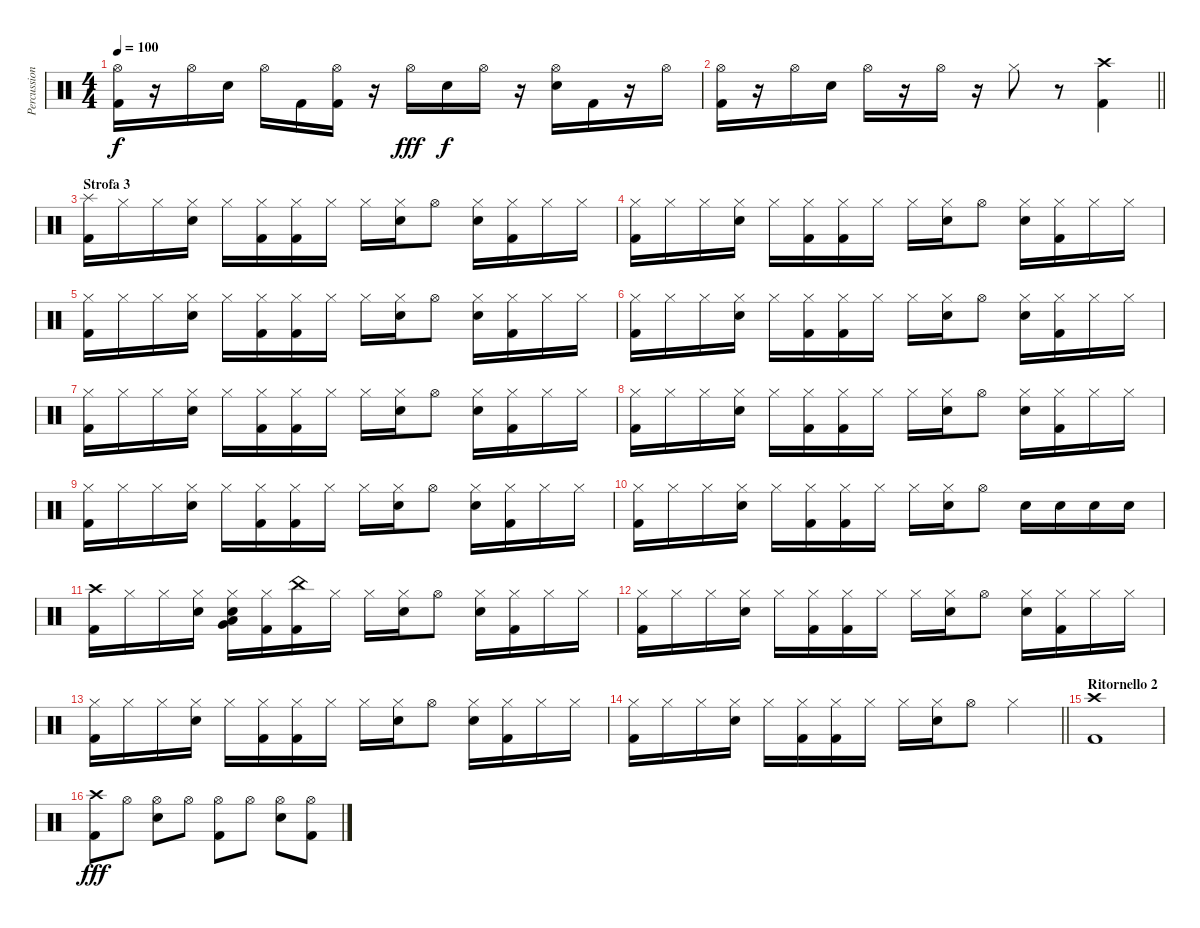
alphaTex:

\track ("Percussioni" "Percussion") {instrument percussion}
\staff {score}
\articulation defaults
\ts (4 4)
\tempo 100
\clef neutral
\ks c
("Hi-Hat (open)" "Kick (hit) 2").16{dy f} r.16 "Hi-Hat (open)".16 "Snare (hit) 2".16 "Hi-Hat (open)".16 "Kick (hit) 2".16 ("Hi-Hat (open)" "Kick (hit) 2").16 r.16 "Hi-Hat (open)".16{dy fff} "Snare (hit) 2".16{dy f} "Hi-Hat (open)".16 r.16 ("Hi-Hat (open)" "Snare (hit) 2").16 "Kick (hit) 2".16 r.16 "Hi-Hat (open)".16 |
\barLineRight lightlight
("Hi-Hat (open)" "Kick (hit) 2").16 r.16 "Hi-Hat (open)".16 "Snare (hit) 2".16 "Hi-Hat (open)".16 r.16 "Hi-Hat (open)".16 r.16 "Hi-Hat (closed)".8 r.8 ("Crash high (hit)" "Kick (hit) 2").4 |
\section ("" "Strofa 3")
("Splash (hit)" "Kick (hit) 2").16 "Hi-Hat (closed)".16 "Hi-Hat (closed)".16 ("Hi-Hat (closed)" "Snare (hit) 2").16 "Hi-Hat (closed)".16 ("Hi-Hat (closed)" "Kick (hit) 2").16 ("Hi-Hat (closed)" "Kick (hit) 2").16 "Hi-Hat (closed)".16 "Hi-Hat (closed)".16 ("Hi-Hat (closed)" "Snare (hit) 2").16 "Hi-Hat (open)".8 ("Hi-Hat (closed)" "Snare (hit) 2").16 ("Hi-Hat (closed)" "Kick (hit) 2").16 "Hi-Hat (closed)".16 "Hi-Hat (closed)".16 |
("Hi-Hat (closed)" "Kick (hit) 2").16 "Hi-Hat (closed)".16 "Hi-Hat (closed)".16 ("Hi-Hat (closed)" "Snare (hit) 2").16 "Hi-Hat (closed)".16 ("Hi-Hat (closed)" "Kick (hit) 2").16 ("Hi-Hat (closed)" "Kick (hit) 2").16 "Hi-Hat (closed)".16 "Hi-Hat (closed)".16 ("Hi-Hat (closed)" "Snare (hit) 2").16 "Hi-Hat (open)".8 ("Hi-Hat (closed)" "Snare (hit) 2").16 ("Hi-Hat (closed)" "Kick (hit) 2").16 "Hi-Hat (closed)".16 "Hi-Hat (closed)".16 |
("Hi-Hat (closed)" "Kick (hit) 2").16 "Hi-Hat (closed)".16 "Hi-Hat (closed)".16 ("Hi-Hat (closed)" "Snare (hit) 2").16 "Hi-Hat (closed)".16 ("Hi-Hat (closed)" "Kick (hit) 2").16 ("Hi-Hat (closed)" "Kick (hit) 2").16 "Hi-Hat (closed)".16 "Hi-Hat (closed)".16 ("Hi-Hat (closed)" "Snare (hit) 2").16 "Hi-Hat (open)".8 ("Hi-Hat (closed)" "Snare (hit) 2").16 ("Hi-Hat (closed)" "Kick (hit) 2").16 "Hi-Hat (closed)".16 "Hi-Hat (closed)".16 |
("Hi-Hat (closed)" "Kick (hit) 2").16 "Hi-Hat (closed)".16 "Hi-Hat (closed)".16 ("Hi-Hat (closed)" "Snare (hit) 2").16 "Hi-Hat (closed)".16 ("Hi-Hat (closed)" "Kick (hit) 2").16 ("Hi-Hat (closed)" "Kick (hit) 2").16 "Hi-Hat (closed)".16 "Hi-Hat (closed)".16 ("Hi-Hat (closed)" "Snare (hit) 2").16 "Hi-Hat (open)".8 ("Hi-Hat (closed)" "Snare (hit) 2").16 ("Hi-Hat (closed)" "Kick (hit) 2").16 "Hi-Hat (closed)".16 "Hi-Hat (closed)".16 |
("Hi-Hat (closed)" "Kick (hit) 2").16 "Hi-Hat (closed)".16 "Hi-Hat (closed)".16 ("Hi-Hat (closed)" "Snare (hit) 2").16 "Hi-Hat (closed)".16 ("Hi-Hat (closed)" "Kick (hit) 2").16 ("Hi-Hat (closed)" "Kick (hit) 2").16 "Hi-Hat (closed)".16 "Hi-Hat (closed)".16 ("Hi-Hat (closed)" "Snare (hit) 2").16 "Hi-Hat (open)".8 ("Hi-Hat (closed)" "Snare (hit) 2").16 ("Hi-Hat (closed)" "Kick (hit) 2").16 "Hi-Hat (closed)".16 "Hi-Hat (closed)".16 |
("Hi-Hat (closed)" "Kick (hit) 2").16 "Hi-Hat (closed)".16 "Hi-Hat (closed)".16 ("Hi-Hat (closed)" "Snare (hit) 2").16 "Hi-Hat (closed)".16 ("Hi-Hat (closed)" "Kick (hit) 2").16 ("Hi-Hat (closed)" "Kick (hit) 2").16 "Hi-Hat (closed)".16 "Hi-Hat (closed)".16 ("Hi-Hat (closed)" "Snare (hit) 2").16 "Hi-Hat (open)".8 ("Hi-Hat (closed)" "Snare (hit) 2").16 ("Hi-Hat (closed)" "Kick (hit) 2").16 "Hi-Hat (closed)".16 "Hi-Hat (closed)".16 |
("Hi-Hat (closed)" "Kick (hit) 2").16 "Hi-Hat (closed)".16 "Hi-Hat (closed)".16 ("Hi-Hat (closed)" "Snare (hit) 2").16 "Hi-Hat (closed)".16 ("Hi-Hat (closed)" "Kick (hit) 2").16 ("Hi-Hat (closed)" "Kick (hit) 2").16 "Hi-Hat (closed)".16 "Hi-Hat (closed)".16 ("Hi-Hat (closed)" "Snare (hit) 2").16 "Hi-Hat (open)".8 ("Hi-Hat (closed)" "Snare (hit) 2").16 ("Hi-Hat (closed)" "Kick (hit) 2").16 "Hi-Hat (closed)".16 "Hi-Hat (closed)".16 |
("Hi-Hat (closed)" "Kick (hit) 2").16 "Hi-Hat (closed)".16 "Hi-Hat (closed)".16 ("Hi-Hat (closed)" "Snare (hit) 2").16 "Hi-Hat (closed)".16 ("Hi-Hat (closed)" "Kick (hit) 2").16 ("Hi-Hat (closed)" "Kick (hit) 2").16 "Hi-Hat (closed)".16 "Hi-Hat (closed)".16 ("Hi-Hat (closed)" "Snare (hit) 2").16 "Hi-Hat (open)".8 "Snare (hit) 2".16 "Snare (hit) 2".16 "Snare (hit) 2".16 "Snare (hit) 2".16 |
("Crash high (hit)" "Kick (hit) 2").16 "Hi-Hat (closed)".16 "Hi-Hat (closed)".16 ("Hi-Hat (closed)" "Snare (hit) 2").16 ("Hi-Hat (closed)" "Very Low Tom (hit)" "Low Tom (hit)" "Snare (hit) 2").16 ("Hi-Hat (closed)" "Kick (hit) 2").16 ("China (hit)" "Kick (hit) 2").16 "Hi-Hat (closed)".16 "Hi-Hat (closed)".16 ("Hi-Hat (closed)" "Snare (hit) 2").16 "Hi-Hat (open)".8 ("Hi-Hat (closed)" "Snare (hit) 2").16 ("Hi-Hat (closed)" "Kick (hit) 2").16 "Hi-Hat (closed)".16 "Hi-Hat (closed)".16 |
("Hi-Hat (closed)" "Kick (hit) 2").16 "Hi-Hat (closed)".16 "Hi-Hat (closed)".16 ("Hi-Hat (closed)" "Snare (hit) 2").16 "Hi-Hat (closed)".16 ("Hi-Hat (closed)" "Kick (hit) 2").16 ("Hi-Hat (closed)" "Kick (hit) 2").16 "Hi-Hat (closed)".16 "Hi-Hat (closed)".16 ("Hi-Hat (closed)" "Snare (hit) 2").16 "Hi-Hat (open)".8 ("Hi-Hat (closed)" "Snare (hit) 2").16 ("Hi-Hat (closed)" "Kick (hit) 2").16 "Hi-Hat (closed)".16 "Hi-Hat (closed)".16 |
("Hi-Hat (closed)" "Kick (hit) 2").16 "Hi-Hat (closed)".16 "Hi-Hat (closed)".16 ("Hi-Hat (closed)" "Snare (hit) 2").16 "Hi-Hat (closed)".16 ("Hi-Hat (closed)" "Kick (hit) 2").16 ("Hi-Hat (closed)" "Kick (hit) 2").16 "Hi-Hat (closed)".16 "Hi-Hat (closed)".16 ("Hi-Hat (closed)" "Snare (hit) 2").16 "Hi-Hat (open)".8 ("Hi-Hat (closed)" "Snare (hit) 2").16 ("Hi-Hat (closed)" "Kick (hit) 2").16 "Hi-Hat (closed)".16 "Hi-Hat (closed)".16 |
\barLineRight lightlight
("Hi-Hat (closed)" "Kick (hit) 2").16 "Hi-Hat (closed)".16 "Hi-Hat (closed)".16 ("Hi-Hat (closed)" "Snare (hit) 2").16 "Hi-Hat (closed)".16 ("Hi-Hat (closed)" "Kick (hit) 2").16 ("Hi-Hat (closed)" "Kick (hit) 2").16 "Hi-Hat (closed)".16 "Hi-Hat (closed)".16 ("Hi-Hat (closed)" "Snare (hit) 2").16 "Hi-Hat (open)".8 "Hi-Hat (closed)".4 |
\section ("" "Ritornello 2")
("Crash high (hit)" "Kick (hit) 2").1 |
("Crash high (hit)" "Kick (hit) 2").8{dy fff} "Hi-Hat (open)".8 ("Hi-Hat (open)" "Snare (hit) 2").8 "Hi-Hat (open)".8 ("Hi-Hat (open)" "Kick (hit) 2").8 "Hi-Hat (open)".8 ("Hi-Hat (open)" "Snare (hit) 2").8 ("Hi-Hat (open)" "Kick (hit) 2").8
